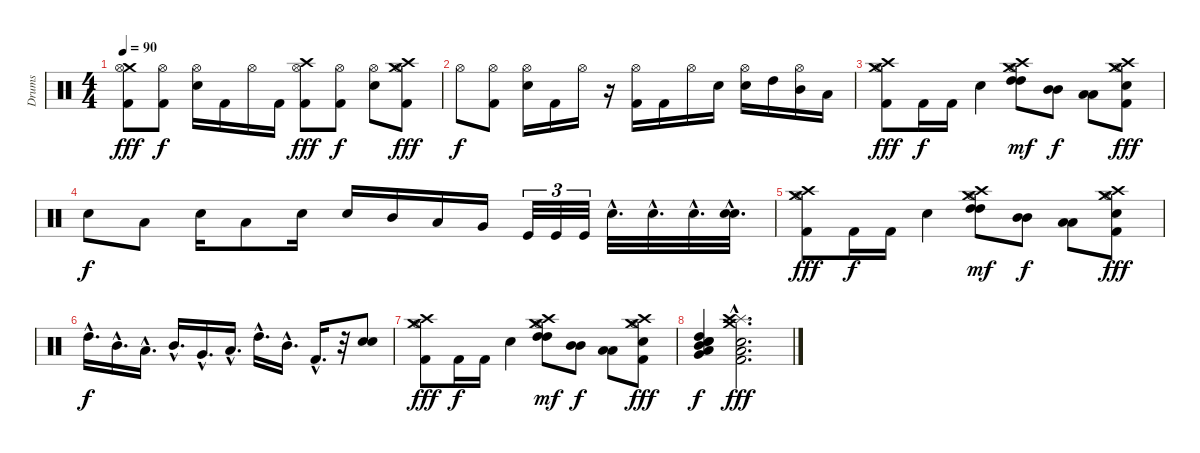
\track ("Drums" "Drums") {instrument percussion}
\staff {score}
\articulation defaults
\ts (4 4)
\tempo 90
\clef neutral
\ks c
("Kick (hit) 2" "Crash medium (hit)" "Hi-Hat (open)").8{dy fff} ("Kick (hit) 2" "Hi-Hat (open)").8{dy f} ("Snare (hit) 2" "Hi-Hat (open)").16 "Kick (hit) 2".16 "Hi-Hat (open)".16 "Kick (hit) 2".16 ("Kick (hit) 2" "Crash high (hit)" "Hi-Hat (open)").8{dy fff} ("Kick (hit) 2" "Hi-Hat (open)").8{dy f} ("Snare (hit) 2" "Hi-Hat (open)").8 ("Kick (hit) 2" "Crash medium (hit)" "Crash high (hit)" "Hi-Hat (open)").8{dy fff} |
"Hi-Hat (open)".8{dy f} ("Kick (hit) 2" "Hi-Hat (open)").8 ("Snare (hit) 2" "Hi-Hat (open)").16 "Kick (hit) 2".16 "Hi-Hat (open)".16 r.16 ("Kick (hit) 2" "Hi-Hat (open)").16 "Kick (hit) 2".16 "Hi-Hat (open)".16 "Snare (hit) 2".16 ("Snare (hit) 2" "Hi-Hat (open)").16 "High Tom (hit)".16 ("Mid Tom (hit)" "Hi-Hat (open)").16 "Low Tom (hit)".16 |
("Kick (hit) 2" "Crash medium (hit)" "Crash high (hit)" "Hi-Hat (open)").8{dy fff} "Kick (hit) 2".16{dy f} "Kick (hit) 2".16 "Snare (hit) 2".4 ("High Tom (hit)" "High Tom (hit)" "Crash medium (hit)" "Crash high (hit)" "Hi-Hat (open)").8{dy mf} ("Mid Tom (hit)" "Mid Tom (hit)").8{dy f} ("Low Tom (hit)" "Low Tom (hit)").8 ("Snare (hit) 2" "Kick (hit) 2" "Crash medium (hit)" "Crash high (hit)" "Hi-Hat (open)").8{dy fff} |
"Snare (hit) 2".8{dy f} "Low Tom (hit)".8 "Snare (hit) 2".16 "Low Tom (hit)".8 "Snare (hit) 2".16 "Snare (hit) 2".16 "Mid Tom (hit)".16 "Low Tom (hit)".16 "Very Low Tom (hit)".16 "Kick (hit)".32{tu (3 2)} "Kick (hit)".32{tu (3 2)} "Kick (hit)".32{tu (3 2)} "Snare (hit) 2"{hac}.32{d} "Snare (hit) 2"{hac}.32{d} "Snare (hit) 2"{hac}.32{d} ("Snare (hit) 2"{hac} "Snare (hit) 2"{hac}).32{d bd 480} |
("Kick (hit) 2" "Crash medium (hit)" "Crash high (hit)" "Hi-Hat (open)").8{dy fff} "Kick (hit) 2".16{dy f} "Kick (hit) 2".16 "Snare (hit) 2".4 ("High Tom (hit)" "High Tom (hit)" "Crash medium (hit)" "Crash high (hit)" "Hi-Hat (open)").8{dy mf} ("Mid Tom (hit)" "Mid Tom (hit)").8{dy f} ("Low Tom (hit)" "Low Tom (hit)").8 ("Snare (hit) 2" "Kick (hit) 2" "Crash medium (hit)" "Crash high (hit)" "Hi-Hat (open)").8{dy fff} |
"High Tom (hit)"{hac}.16{d dy f} "Mid Tom (hit)"{hac}.16{d} "Low Tom (hit)"{hac}.16{d} "Mid Tom (hit)"{hac}.16{d} "Very Low Tom (hit)"{hac}.16{d} "Low Floor Tom (hit)"{hac}.16{d} "High Tom (hit)"{hac}.16{d} "Mid Tom (hit)"{hac}.16{d} "Kick (hit) 2"{hac}.16{d} r.32 ("Snare (hit) 2" "Snare (hit) 2").8{bd 240} |
("Kick (hit) 2" "Crash medium (hit)" "Crash high (hit)" "Hi-Hat (open)").8{dy fff} "Kick (hit) 2".16{dy f} "Kick (hit) 2".16 "Snare (hit) 2".4 ("High Tom (hit)" "High Tom (hit)" "Crash medium (hit)" "Crash high (hit)" "Hi-Hat (open)").8{dy mf} ("Mid Tom (hit)" "Mid Tom (hit)").8{dy f} ("Low Tom (hit)" "Low Tom (hit)").8 ("Snare (hit) 2" "Kick (hit) 2" "Crash medium (hit)" "Crash high (hit)" "Hi-Hat (open)").8{dy fff} |
("Snare (hit) 2" "High Tom (hit)" "Mid Tom (hit)" "Low Tom (hit)" "Very Low Tom (hit)" "Snare (hit) 2").4{bu 480 dy f} ("Kick (hit) 2"{hac} "Snare (hit) 2"{hac} "Low Tom (hit)"{hac} "Splash (hit)"{hac} "Crash medium (hit)"{hac} "Crash high (hit)"{hac}).2{d dy fff}
